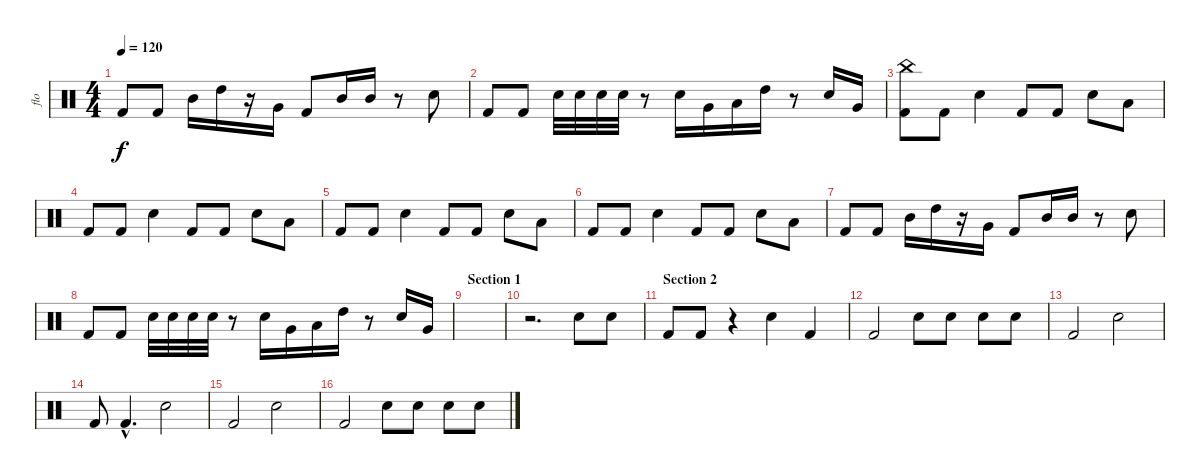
\track ("flo" "flo") {instrument percussion}
\staff {score}
\articulation defaults
\ts (4 4)
\tempo 120
\clef neutral
\ks c "Kick (hit) 2".8{dy f} "Kick (hit) 2".8 "Mid Tom (hit)".16 "High Tom (hit)".16
r.16 "Very Low Tom (hit)".16 "Kick (hit) 2".8 "Mid Tom (hit)".16 "Mid Tom (hit)".16 r.8 "Snare (hit) 2".8 |
"Kick (hit) 2".8 "Kick (hit) 2".8 "Electric Snare (hit)".32 "Electric Snare (hit)".32 "Electric Snare (hit)".32 "Electric Snare (hit)".32 r.8 "Electric Snare (hit)".16 "Very Low Tom (hit)".16 "Low Tom (hit)".16 "High Tom (hit)".16 r.8 "Electric Snare (hit)".16 "Very Low Tom (hit)".16 |
("China (hit)" "Kick (hit) 2").8 "Kick (hit) 2".8 "Snare (hit) 2".4 "Kick (hit) 2".8 "Kick (hit) 2".8 "Snare (hit) 2".8 "Low Floor Tom (hit)".8 |
"Kick (hit) 2".8 "Kick (hit) 2".8 "Snare (hit) 2".4 "Kick (hit) 2".8 "Kick (hit) 2".8 "Snare (hit) 2".8 "Low Floor Tom (hit)".8 |
"Kick (hit) 2".8 "Kick (hit) 2".8 "Snare (hit) 2".4 "Kick (hit) 2".8 "Kick (hit) 2".8 "Snare (hit) 2".8 "Low Floor Tom (hit)".8 |
"Kick (hit) 2".8 "Kick (hit) 2".8 "Snare (hit) 2".4 "Kick (hit) 2".8 "Kick (hit) 2".8 "Snare (hit) 2".8 "Low Floor Tom (hit)".8 |
"Kick (hit) 2".8 "Kick (hit) 2".8 "Mid Tom (hit)".16 "High Tom (hit)".16 r.16 "Very Low Tom (hit)".16 "Kick (hit) 2".8 "Mid Tom (hit)".16 "Mid Tom (hit)".16 r.8 "Snare (hit) 2".8 |
"Kick (hit) 2".8 "Kick (hit) 2".8 "Electric Snare (hit)".32 "Electric Snare (hit)".32 "Electric Snare (hit)".32 "Electric Snare (hit)".32 r.8 "Electric Snare (hit)".16 "Very Low Tom (hit)".16 "Low Tom (hit)".16 "High Tom (hit)".16 r.8 "Electric Snare (hit)".16 "Very Low Tom (hit)".16 |
\section ("" "Section 1")
|
r.2{d} "Electric Snare (hit)".8 "Electric Snare (hit)".8 |
\section ("" "Section 2")
"Kick (hit) 2".8 "Kick (hit) 2".8 r.4 "Electric Snare (hit)".4 "Kick (hit) 2".4 |
"Kick (hit) 2".2 "Electric Snare (hit)".8 "Electric Snare (hit)".8 "Electric Snare (hit)".8 "Electric Snare (hit)".8 |
"Kick (hit) 2".2 "Electric Snare (hit)".2 |
"Kick (hit) 2".8 "Kick (hit) 2"{hac}.4{d} "Electric Snare (hit)".2 |
"Kick (hit) 2".2 "Electric Snare (hit)".2 |
"Kick (hit) 2".2 "Electric Snare (hit)".8 "Electric Snare (hit)".8 "Electric Snare (hit)".8 "Electric Snare (hit)".8
